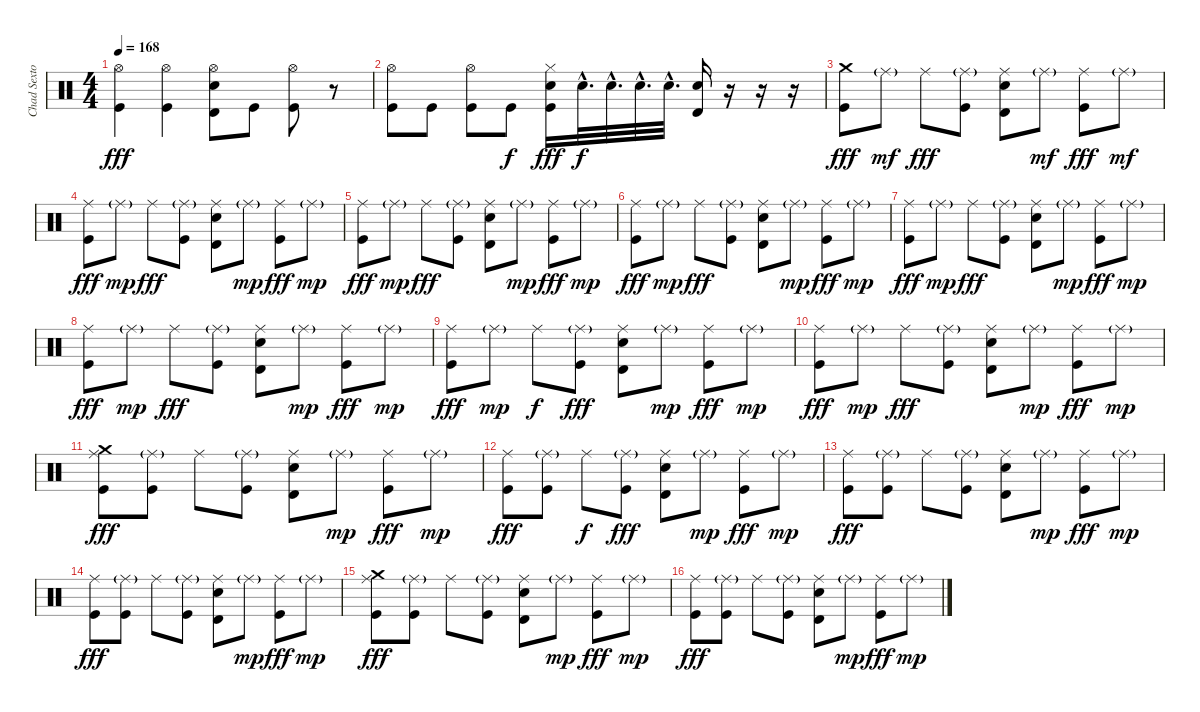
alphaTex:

\track ("Chad Sexton" "Chad Sexto") {instrument percussion}
\staff {score}
\articulation defaults
\ts (4 4)
\tempo 168
\clef neutral
\ks c
("Hi-Hat (open)" "Kick (hit)").4{dy fff} ("Hi-Hat (open)" "Kick (hit)").4 ("Hi-Hat (open)" "Electric Snare (hit)" "Timbale high (hit)").8 "Kick (hit)".8 ("Hi-Hat (open)" "Kick (hit)").8 r.8 |
("Hi-Hat (open)" "Kick (hit)").8 "Kick (hit)".8 ("Hi-Hat (open)" "Kick (hit)").8 "Kick (hit)".8{dy f} ("Hi-Hat (closed)" "Electric Snare (hit)" "Kick (hit)").16{dy fff} "Electric Snare (hit)"{hac}.32{d dy f} "Electric Snare (hit)"{hac}.32{d} "Electric Snare (hit)"{hac}.32{d} "Electric Snare (hit)"{hac}.32{d} ("Electric Snare (hit)" "Timbale high (hit)").16 r.16 r.16 r.16 |
("Crash medium (hit)" "Kick (hit)").8{dy fff} "Ride (middle)"{g}.8{dy mf} "Ride (middle)".8{dy fff} ("Ride (middle)"{g} "Kick (hit)").8 ("Ride (middle)" "Electric Snare (hit)" "Timbale high (hit)").8 "Ride (middle)"{g}.8{dy mf} ("Ride (middle)" "Kick (hit)").8{dy fff} "Ride (middle)"{g}.8{dy mf} |
("Ride (middle)" "Kick (hit)").8{dy fff} "Ride (middle)"{g}.8{dy mp} "Ride (middle)".8{dy fff} ("Ride (middle)"{g} "Kick (hit)").8 ("Ride (middle)" "Electric Snare (hit)" "Timbale high (hit)").8 "Ride (middle)"{g}.8{dy mp} ("Ride (middle)" "Kick (hit)").8{dy fff} "Ride (middle)"{g}.8{dy mp} |
("Ride (middle)" "Kick (hit)").8{dy fff} "Ride (middle)"{g}.8{dy mp} "Ride (middle)".8{dy fff} ("Ride (middle)"{g} "Kick (hit)").8 ("Ride (middle)" "Electric Snare (hit)" "Timbale high (hit)").8 "Ride (middle)"{g}.8{dy mp} ("Ride (middle)" "Kick (hit)").8{dy fff} "Ride (middle)"{g}.8{dy mp} |
("Ride (middle)" "Kick (hit)").8{dy fff} "Ride (middle)"{g}.8{dy mp} "Ride (middle)".8{dy fff} ("Ride (middle)"{g} "Kick (hit)").8 ("Ride (middle)" "Electric Snare (hit)" "Timbale high (hit)").8 "Ride (middle)"{g}.8{dy mp} ("Ride (middle)" "Kick (hit)").8{dy fff} "Ride (middle)"{g}.8{dy mp} |
("Ride (middle)" "Kick (hit)").8{dy fff} "Ride (middle)"{g}.8{dy mp} "Ride (middle)".8{dy fff} ("Ride (middle)"{g} "Kick (hit)").8 ("Ride (middle)" "Electric Snare (hit)" "Timbale high (hit)").8 "Ride (middle)"{g}.8{dy mp} ("Ride (middle)" "Kick (hit)").8{dy fff} "Ride (middle)"{g}.8{dy mp} |
("Ride (middle)" "Kick (hit)").8{dy fff} "Ride (middle)"{g}.8{dy mp} "Ride (middle)".8{dy fff} ("Ride (middle)"{g} "Kick (hit)").8 ("Ride (middle)" "Electric Snare (hit)" "Timbale high (hit)").8 "Ride (middle)"{g}.8{dy mp} ("Ride (middle)" "Kick (hit)").8{dy fff} "Ride (middle)"{g}.8{dy mp} |
("Ride (middle)" "Kick (hit)").8{dy fff} "Ride (middle)"{g}.8{dy mp} "Ride (middle)".8{dy f} ("Ride (middle)"{g} "Kick (hit)").8{dy fff} ("Ride (middle)" "Electric Snare (hit)" "Timbale high (hit)").8 "Ride (middle)"{g}.8{dy mp} ("Ride (middle)" "Kick (hit)").8{dy fff} "Ride (middle)"{g}.8{dy mp} |
("Ride (middle)" "Kick (hit)").8{dy fff} "Ride (middle)"{g}.8{dy mp} "Ride (middle)".8{dy fff} ("Ride (middle)"{g} "Kick (hit)").8 ("Ride (middle)" "Electric Snare (hit)" "Timbale high (hit)").8 "Ride (middle)"{g}.8{dy mp} ("Ride (middle)" "Kick (hit)").8{dy fff} "Ride (middle)"{g}.8{dy mp} |
("Crash medium (hit)" "Ride (middle)" "Kick (hit)").8{dy fff} ("Ride (middle)"{g} "Kick (hit)").8 "Ride (middle)".8 ("Ride (middle)"{g} "Kick (hit)").8 ("Ride (middle)" "Electric Snare (hit)" "Timbale high (hit)").8 "Ride (middle)"{g}.8{dy mp} ("Ride (middle)" "Kick (hit)").8{dy fff} "Ride (middle)"{g}.8{dy mp} |
("Ride (middle)" "Kick (hit)").8{dy fff} ("Ride (middle)"{g} "Kick (hit)").8 "Ride (middle)".8{dy f} ("Ride (middle)"{g} "Kick (hit)").8{dy fff} ("Ride (middle)" "Electric Snare (hit)" "Timbale high (hit)").8 "Ride (middle)"{g}.8{dy mp} ("Ride (middle)" "Kick (hit)").8{dy fff} "Ride (middle)"{g}.8{dy mp} |
("Ride (middle)" "Kick (hit)").8{dy fff} ("Ride (middle)"{g} "Kick (hit)").8 "Ride (middle)".8 ("Ride (middle)"{g} "Kick (hit)").8 ("Ride (middle)" "Electric Snare (hit)" "Timbale high (hit)").8 "Ride (middle)"{g}.8{dy mp} ("Ride (middle)" "Kick (hit)").8{dy fff} "Ride (middle)"{g}.8{dy mp} |
("Ride (middle)" "Kick (hit)").8{dy fff} ("Ride (middle)"{g} "Kick (hit)").8 "Ride (middle)".8 ("Ride (middle)"{g} "Kick (hit)").8 ("Ride (middle)" "Electric Snare (hit)" "Timbale high (hit)").8 "Ride (middle)"{g}.8{dy mp} ("Ride (middle)" "Kick (hit)").8{dy fff} "Ride (middle)"{g}.8{dy mp} |
("Crash medium (hit)" "Ride (middle)" "Kick (hit)").8{dy fff} ("Ride (middle)"{g} "Kick (hit)").8 "Ride (middle)".8 ("Ride (middle)"{g} "Kick (hit)").8 ("Ride (middle)" "Electric Snare (hit)" "Timbale high (hit)").8 "Ride (middle)"{g}.8{dy mp} ("Ride (middle)" "Kick (hit)").8{dy fff} "Ride (middle)"{g}.8{dy mp} |
("Ride (middle)" "Kick (hit)").8{dy fff} ("Ride (middle)"{g} "Kick (hit)").8 "Ride (middle)".8 ("Ride (middle)"{g} "Kick (hit)").8 ("Ride (middle)" "Electric Snare (hit)" "Timbale high (hit)").8 "Ride (middle)"{g}.8{dy mp} ("Ride (middle)" "Kick (hit)").8{dy fff} "Ride (middle)"{g}.8{dy mp}
